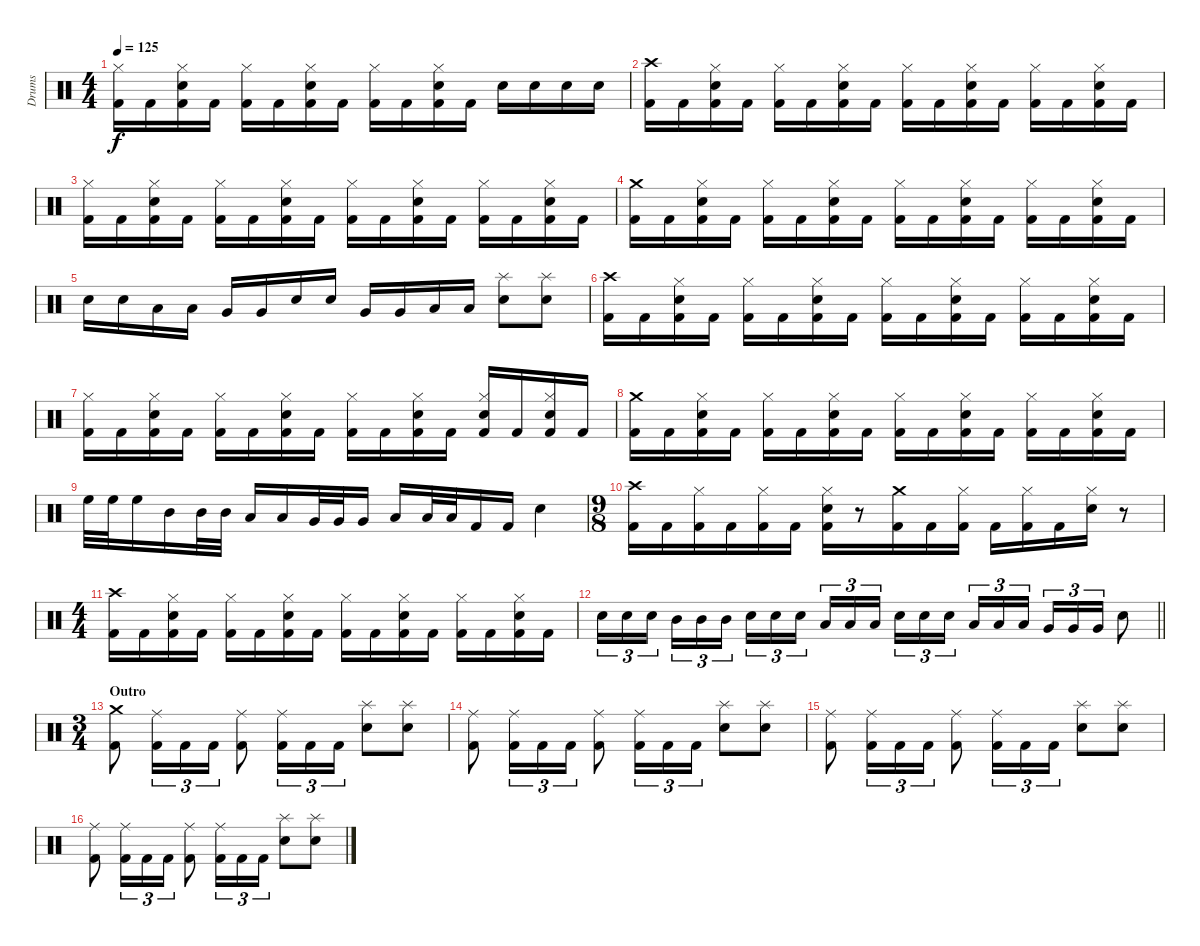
\track ("Drums" "Drums") {instrument percussion}
\staff {score}
\articulation defaults
\ts (4 4)
\tempo 125
\clef neutral
\ks c
("Kick (hit) 2" "Hi-Hat (closed)").16{dy f} "Kick (hit) 2".16 ("Kick (hit) 2" "Hi-Hat (closed)" "Electric Snare (hit)").16 "Kick (hit) 2".16 ("Kick (hit) 2" "Hi-Hat (closed)").16 "Kick (hit) 2".16 ("Kick (hit) 2" "Hi-Hat (closed)" "Electric Snare (hit)").16 "Kick (hit) 2".16 ("Kick (hit) 2" "Hi-Hat (closed)").16 "Kick (hit) 2".16 ("Kick (hit) 2" "Hi-Hat (closed)" "Electric Snare (hit)").16 "Kick (hit) 2".16 "Electric Snare (hit)".16 "Electric Snare (hit)".16 "Electric Snare (hit)".16 "Electric Snare (hit)".16 |
("Kick (hit) 2" "Crash high (hit)").16 "Kick (hit) 2".16 ("Kick (hit) 2" "Hi-Hat (closed)" "Electric Snare (hit)").16 "Kick (hit) 2".16 ("Kick (hit) 2" "Hi-Hat (closed)").16 "Kick (hit) 2".16 ("Kick (hit) 2" "Hi-Hat (closed)" "Electric Snare (hit)").16 "Kick (hit) 2".16 ("Kick (hit) 2" "Hi-Hat (closed)").16 "Kick (hit) 2".16 ("Kick (hit) 2" "Hi-Hat (closed)" "Electric Snare (hit)").16 "Kick (hit) 2".16 ("Kick (hit) 2" "Hi-Hat (closed)").16 "Kick (hit) 2".16 ("Kick (hit) 2" "Hi-Hat (closed)" "Electric Snare (hit)").16 "Kick (hit) 2".16 |
("Kick (hit) 2" "Hi-Hat (closed)").16 "Kick (hit) 2".16 ("Kick (hit) 2" "Hi-Hat (closed)" "Electric Snare (hit)").16 "Kick (hit) 2".16 ("Kick (hit) 2" "Hi-Hat (closed)").16 "Kick (hit) 2".16 ("Kick (hit) 2" "Hi-Hat (closed)" "Electric Snare (hit)").16 "Kick (hit) 2".16 ("Kick (hit) 2" "Hi-Hat (closed)").16 "Kick (hit) 2".16 ("Kick (hit) 2" "Hi-Hat (closed)" "Electric Snare (hit)").16 "Kick (hit) 2".16 ("Kick (hit) 2" "Hi-Hat (closed)").16 "Kick (hit) 2".16 ("Kick (hit) 2" "Hi-Hat (closed)" "Electric Snare (hit)").16 "Kick (hit) 2".16 |
("Kick (hit) 2" "Crash medium (hit)").16 "Kick (hit) 2".16 ("Kick (hit) 2" "Hi-Hat (closed)" "Electric Snare (hit)").16 "Kick (hit) 2".16 ("Kick (hit) 2" "Hi-Hat (closed)").16 "Kick (hit) 2".16 ("Kick (hit) 2" "Hi-Hat (closed)" "Electric Snare (hit)").16 "Kick (hit) 2".16 ("Kick (hit) 2" "Hi-Hat (closed)").16 "Kick (hit) 2".16 ("Kick (hit) 2" "Hi-Hat (closed)" "Electric Snare (hit)").16 "Kick (hit) 2".16 ("Kick (hit) 2" "Hi-Hat (closed)").16 "Kick (hit) 2".16 ("Kick (hit) 2" "Hi-Hat (closed)" "Electric Snare (hit)").16 "Kick (hit) 2".16 |
"Electric Snare (hit)".16 "Electric Snare (hit)".16 "Low Tom (hit)".16 "Low Tom (hit)".16 "Very Low Tom (hit)".16 "Very Low Tom (hit)".16 "Electric Snare (hit)".16 "Electric Snare (hit)".16 "Very Low Tom (hit)".16 "Very Low Tom (hit)".16 "Low Floor Tom (hit)".16 "Low Floor Tom (hit)".16 ("Splash (hit)" "Electric Snare (hit)").8 ("Splash (hit)" "Electric Snare (hit)").8 |
("Kick (hit) 2" "Crash high (hit)").16 "Kick (hit) 2".16 ("Kick (hit) 2" "Hi-Hat (closed)" "Electric Snare (hit)").16 "Kick (hit) 2".16 ("Kick (hit) 2" "Hi-Hat (closed)").16 "Kick (hit) 2".16 ("Kick (hit) 2" "Hi-Hat (closed)" "Electric Snare (hit)").16 "Kick (hit) 2".16 ("Kick (hit) 2" "Hi-Hat (closed)").16 "Kick (hit) 2".16 ("Kick (hit) 2" "Hi-Hat (closed)" "Electric Snare (hit)").16 "Kick (hit) 2".16 ("Kick (hit) 2" "Hi-Hat (closed)").16 "Kick (hit) 2".16 ("Kick (hit) 2" "Hi-Hat (closed)" "Electric Snare (hit)").16 "Kick (hit) 2".16 |
("Kick (hit) 2" "Hi-Hat (closed)").16 "Kick (hit) 2".16 ("Kick (hit) 2" "Hi-Hat (closed)" "Electric Snare (hit)").16 "Kick (hit) 2".16 ("Kick (hit) 2" "Hi-Hat (closed)").16 "Kick (hit) 2".16 ("Kick (hit) 2" "Hi-Hat (closed)" "Electric Snare (hit)").16 "Kick (hit) 2".16 ("Kick (hit) 2" "Hi-Hat (closed)").16 "Kick (hit) 2".16 ("Kick (hit) 2" "Hi-Hat (closed)" "Electric Snare (hit)").16 "Kick (hit) 2".16 ("Kick (hit) 2" "Hi-Hat (closed)" "Electric Snare (hit)").16 "Kick (hit) 2".16 ("Kick (hit) 2" "Hi-Hat (closed)" "Electric Snare (hit)").16 "Kick (hit) 2".16 |
("Kick (hit) 2" "Crash medium (hit)").16 "Kick (hit) 2".16 ("Kick (hit) 2" "Hi-Hat (closed)" "Electric Snare (hit)").16 "Kick (hit) 2".16 ("Kick (hit) 2" "Hi-Hat (closed)").16 "Kick (hit) 2".16 ("Kick (hit) 2" "Hi-Hat (closed)" "Electric Snare (hit)").16 "Kick (hit) 2".16 ("Kick (hit) 2" "Hi-Hat (closed)").16 "Kick (hit) 2".16 ("Kick (hit) 2" "Hi-Hat (closed)" "Electric Snare (hit)").16 "Kick (hit) 2".16 ("Kick (hit) 2" "Hi-Hat (closed)").16 "Kick (hit) 2".16 ("Kick (hit) 2" "Hi-Hat (closed)" "Electric Snare (hit)").16 "Kick (hit) 2".16 |
"High Floor Tom (hit)".32 "High Floor Tom (hit)".32 "High Floor Tom (hit)".16 "Mid Tom (hit)".16 "Mid Tom (hit)".32 "Mid Tom (hit)".32 "Low Tom (hit)".16 "Low Tom (hit)".16 "Very Low Tom (hit)".32 "Very Low Tom (hit)".32 "Very Low Tom (hit)".16 "Low Floor Tom (hit)".16 "Low Floor Tom (hit)".32 "Low Floor Tom (hit)".32 "Kick (hit) 2".16 "Kick (hit) 2".16 "Electric Snare (hit)".4 |
\ts (9 8)
("Kick (hit) 2" "Crash high (hit)").16 "Kick (hit) 2".16 ("Kick (hit) 2" "Hi-Hat (closed)").16 "Kick (hit) 2".16 ("Kick (hit) 2" "Hi-Hat (closed)").16 "Kick (hit) 2".16 ("Kick (hit) 2" "Hi-Hat (closed)" "Electric Snare (hit)").16 r.8 ("Kick (hit) 2" "Crash medium (hit)").16 "Kick (hit) 2".16 ("Kick (hit) 2" "Hi-Hat (closed)").16 "Kick (hit) 2".16 ("Kick (hit) 2" "Hi-Hat (closed)").16 "Kick (hit) 2".16 ("Hi-Hat (closed)" "Electric Snare (hit)").16 r.8 |
\ts (4 4)
("Kick (hit) 2" "Crash high (hit)").16 "Kick (hit) 2".16 ("Kick (hit) 2" "Hi-Hat (closed)" "Electric Snare (hit)").16 "Kick (hit) 2".16 ("Kick (hit) 2" "Hi-Hat (closed)").16 "Kick (hit) 2".16 ("Kick (hit) 2" "Hi-Hat (closed)" "Electric Snare (hit)").16 "Kick (hit) 2".16 ("Kick (hit) 2" "Hi-Hat (closed)").16 "Kick (hit) 2".16 ("Kick (hit) 2" "Hi-Hat (closed)" "Electric Snare (hit)").16 "Kick (hit) 2".16 ("Kick (hit) 2" "Hi-Hat (closed)").16 "Kick (hit) 2".16 ("Kick (hit) 2" "Hi-Hat (closed)" "Electric Snare (hit)").16 "Kick (hit) 2".16 |
\barLineRight lightlight "Electric Snare (hit)".16{tu (3 2)} "Electric Snare (hit)".16{tu (3 2)} "Electric Snare (hit)".16{tu (3 2) beam splitsecondary} "Mid Tom (hit)".16{tu (3 2)} "Mid Tom (hit)".16{tu (3 2)} "Mid Tom (hit)".16{tu (3 2)} "Electric Snare (hit)".16{tu (3 2)} "Electric Snare (hit)".16{tu (3 2)} "Electric Snare (hit)".16{tu (3 2) beam splitsecondary} "Low Tom (hit)".16{tu (3 2)} "Low Tom (hit)".16{tu (3 2)} "Low Tom (hit)".16{tu (3 2)} "Electric Snare (hit)".16{tu (3 2)} "Electric Snare (hit)".16{tu (3 2)} "Electric Snare (hit)".16{tu (3 2) beam splitsecondary} "Low Tom (hit)".16{tu (3 2)} "Low Tom (hit)".16{tu (3 2)} "Low Tom (hit)".16{tu (3 2)} "Very Low Tom (hit)".16{tu (3 2)} "Very Low Tom (hit)".16{tu (3 2)} "Very Low Tom (hit)".16{tu (3 2)} "Electric Snare (hit)".8
|
\ts (3 4)
\section ("" "Outro")
("Kick (hit) 2" "Crash medium (hit)").8 ("Kick (hit) 2" "Ride (middle)").16{tu (3 2)} "Kick (hit) 2".16{tu (3 2)} "Kick (hit) 2".16{tu (3 2)} ("Kick (hit) 2" "Ride (middle)").8 ("Kick (hit) 2" "Ride (middle)").16{tu (3 2)} "Kick (hit) 2".16{tu (3 2)} "Kick (hit) 2".16{tu (3 2)} ("Splash (hit)" "Electric Snare (hit)").8 ("Splash (hit)" "Electric Snare (hit)").8 |
("Kick (hit) 2" "Ride (middle)").8 ("Kick (hit) 2" "Ride (middle)").16{tu (3 2)} "Kick (hit) 2".16{tu (3 2)} "Kick (hit) 2".16{tu (3 2)} ("Kick (hit) 2" "Ride (middle)").8 ("Kick (hit) 2" "Ride (middle)").16{tu (3 2)} "Kick (hit) 2".16{tu (3 2)} "Kick (hit) 2".16{tu (3 2)} ("Splash (hit)" "Electric Snare (hit)").8 ("Splash (hit)" "Electric Snare (hit)").8 |
("Kick (hit) 2" "Ride (middle)").8 ("Kick (hit) 2" "Ride (middle)").16{tu (3 2)} "Kick (hit) 2".16{tu (3 2)} "Kick (hit) 2".16{tu (3 2)} ("Kick (hit) 2" "Ride (middle)").8 ("Kick (hit) 2" "Ride (middle)").16{tu (3 2)} "Kick (hit) 2".16{tu (3 2)} "Kick (hit) 2".16{tu (3 2)} ("Splash (hit)" "Electric Snare (hit)").8 ("Splash (hit)" "Electric Snare (hit)").8 |
("Kick (hit) 2" "Ride (middle)").8 ("Kick (hit) 2" "Ride (middle)").16{tu (3 2)} "Kick (hit) 2".16{tu (3 2)} "Kick (hit) 2".16{tu (3 2)} ("Kick (hit) 2" "Ride (middle)").8 ("Kick (hit) 2" "Ride (middle)").16{tu (3 2)} "Kick (hit) 2".16{tu (3 2)} "Kick (hit) 2".16{tu (3 2)} ("Splash (hit)" "Electric Snare (hit)").8 ("Splash (hit)" "Electric Snare (hit)").8
